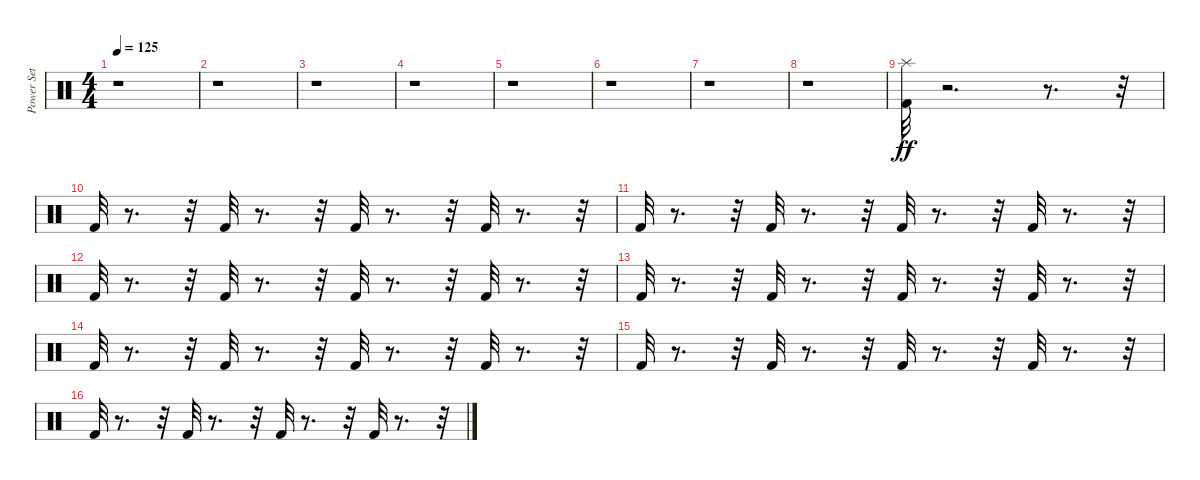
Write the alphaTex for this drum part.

\track ("Power Set" "Power Set") {instrument percussion}
\staff {score}
\articulation defaults
\ts (4 4)
\tempo 125
\clef neutral
\ks c
r.1{dy ff} |
r.1 |
r.1 |
r.1 |
r.1 |
r.1 |
r.1 |
r.1 |
("Kick (hit) 2" "Splash (hit)").32 r.2{d} r.8{d} r.32 |
"Kick (hit) 2".32 r.8{d} r.32 "Kick (hit) 2".32 r.8{d} r.32 "Kick (hit) 2".32 r.8{d} r.32 "Kick (hit) 2".32 r.8{d} r.32 |
"Kick (hit) 2".32 r.8{d} r.32 "Kick (hit) 2".32 r.8{d} r.32 "Kick (hit) 2".32 r.8{d} r.32 "Kick (hit) 2".32 r.8{d} r.32 |
"Kick (hit) 2".32 r.8{d} r.32 "Kick (hit) 2".32 r.8{d} r.32 "Kick (hit) 2".32 r.8{d} r.32 "Kick (hit) 2".32 r.8{d} r.32 |
"Kick (hit) 2".32 r.8{d} r.32 "Kick (hit) 2".32 r.8{d} r.32 "Kick (hit) 2".32 r.8{d} r.32 "Kick (hit) 2".32 r.8{d} r.32 |
"Kick (hit) 2".32 r.8{d} r.32 "Kick (hit) 2".32 r.8{d} r.32 "Kick (hit) 2".32 r.8{d} r.32 "Kick (hit) 2".32 r.8{d} r.32 |
"Kick (hit) 2".32 r.8{d} r.32 "Kick (hit) 2".32 r.8{d} r.32 "Kick (hit) 2".32 r.8{d} r.32 "Kick (hit) 2".32 r.8{d} r.32 |
"Kick (hit) 2".32 r.8{d} r.32 "Kick (hit) 2".32 r.8{d} r.32 "Kick (hit) 2".32 r.8{d} r.32 "Kick (hit) 2".32 r.8{d} r.32
